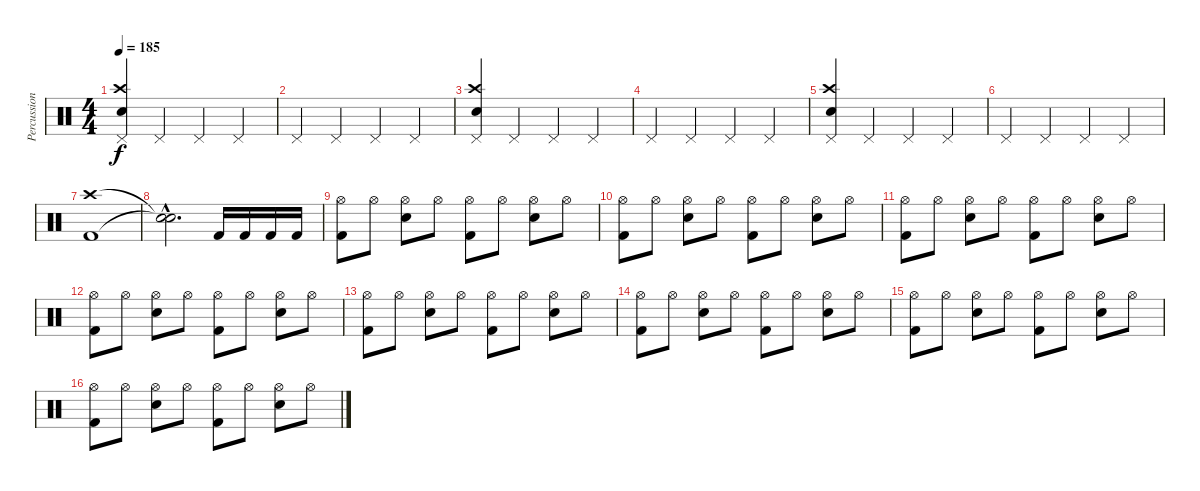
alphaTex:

\track ("Percussion" "Percussion") {instrument percussion}
\staff {score}
\articulation defaults
\ts (4 4)
\tempo 185
\clef neutral
\ks c
("Pedal Hi-Hat (hit)" "Crash high (hit)" "Snare (hit) 2").4{dy f} "Pedal Hi-Hat (hit)".4 "Pedal Hi-Hat (hit)".4 "Pedal Hi-Hat (hit)".4 |
"Pedal Hi-Hat (hit)".4 "Pedal Hi-Hat (hit)".4 "Pedal Hi-Hat (hit)".4 "Pedal Hi-Hat (hit)".4 |
("Pedal Hi-Hat (hit)" "Crash high (hit)" "Snare (hit) 2").4 "Pedal Hi-Hat (hit)".4 "Pedal Hi-Hat (hit)".4 "Pedal Hi-Hat (hit)".4 |
"Pedal Hi-Hat (hit)".4 "Pedal Hi-Hat (hit)".4 "Pedal Hi-Hat (hit)".4 "Pedal Hi-Hat (hit)".4 |
("Pedal Hi-Hat (hit)" "Crash high (hit)" "Snare (hit) 2").4 "Pedal Hi-Hat (hit)".4 "Pedal Hi-Hat (hit)".4 "Pedal Hi-Hat (hit)".4 |
"Pedal Hi-Hat (hit)".4 "Pedal Hi-Hat (hit)".4 "Pedal Hi-Hat (hit)".4 "Pedal Hi-Hat (hit)".4 |
("Crash high (hit)" "Kick (hit) 2").1 |
("Snare (hit)"{hac t} "Snare (hit)"{hac t}).2{d} "Kick (hit) 2".16 "Kick (hit) 2".16 "Kick (hit) 2".16 "Kick (hit) 2".16 |
("Hi-Hat (open)" "Kick (hit) 2").8 "Hi-Hat (open)".8 ("Hi-Hat (open)" "Snare (hit) 2").8 "Hi-Hat (open)".8 ("Hi-Hat (open)" "Kick (hit) 2").8 "Hi-Hat (open)".8 ("Hi-Hat (open)" "Snare (hit) 2").8 "Hi-Hat (open)".8 |
("Hi-Hat (open)" "Kick (hit) 2").8 "Hi-Hat (open)".8 ("Hi-Hat (open)" "Snare (hit) 2").8 "Hi-Hat (open)".8 ("Hi-Hat (open)" "Kick (hit) 2").8 "Hi-Hat (open)".8 ("Hi-Hat (open)" "Snare (hit) 2").8 "Hi-Hat (open)".8 |
("Hi-Hat (open)" "Kick (hit) 2").8 "Hi-Hat (open)".8 ("Hi-Hat (open)" "Snare (hit) 2").8 "Hi-Hat (open)".8 ("Hi-Hat (open)" "Kick (hit) 2").8 "Hi-Hat (open)".8 ("Hi-Hat (open)" "Snare (hit) 2").8 "Hi-Hat (open)".8 |
("Hi-Hat (open)" "Kick (hit) 2").8 "Hi-Hat (open)".8 ("Hi-Hat (open)" "Snare (hit) 2").8 "Hi-Hat (open)".8 ("Hi-Hat (open)" "Kick (hit) 2").8 "Hi-Hat (open)".8 ("Hi-Hat (open)" "Snare (hit) 2").8 "Hi-Hat (open)".8 |
("Hi-Hat (open)" "Kick (hit) 2").8 "Hi-Hat (open)".8 ("Hi-Hat (open)" "Snare (hit) 2").8 "Hi-Hat (open)".8 ("Hi-Hat (open)" "Kick (hit) 2").8 "Hi-Hat (open)".8 ("Hi-Hat (open)" "Snare (hit) 2").8 "Hi-Hat (open)".8 |
("Hi-Hat (open)" "Kick (hit) 2").8 "Hi-Hat (open)".8 ("Hi-Hat (open)" "Snare (hit) 2").8 "Hi-Hat (open)".8 ("Hi-Hat (open)" "Kick (hit) 2").8 "Hi-Hat (open)".8 ("Hi-Hat (open)" "Snare (hit) 2").8 "Hi-Hat (open)".8 |
("Hi-Hat (open)" "Kick (hit) 2").8 "Hi-Hat (open)".8 ("Hi-Hat (open)" "Snare (hit) 2").8 "Hi-Hat (open)".8 ("Hi-Hat (open)" "Kick (hit) 2").8 "Hi-Hat (open)".8 ("Hi-Hat (open)" "Snare (hit) 2").8 "Hi-Hat (open)".8 |
("Hi-Hat (open)" "Kick (hit) 2").8 "Hi-Hat (open)".8 ("Hi-Hat (open)" "Snare (hit) 2").8 "Hi-Hat (open)".8 ("Hi-Hat (open)" "Kick (hit) 2").8 "Hi-Hat (open)".8 ("Hi-Hat (open)" "Snare (hit) 2").8 "Hi-Hat (open)".8
